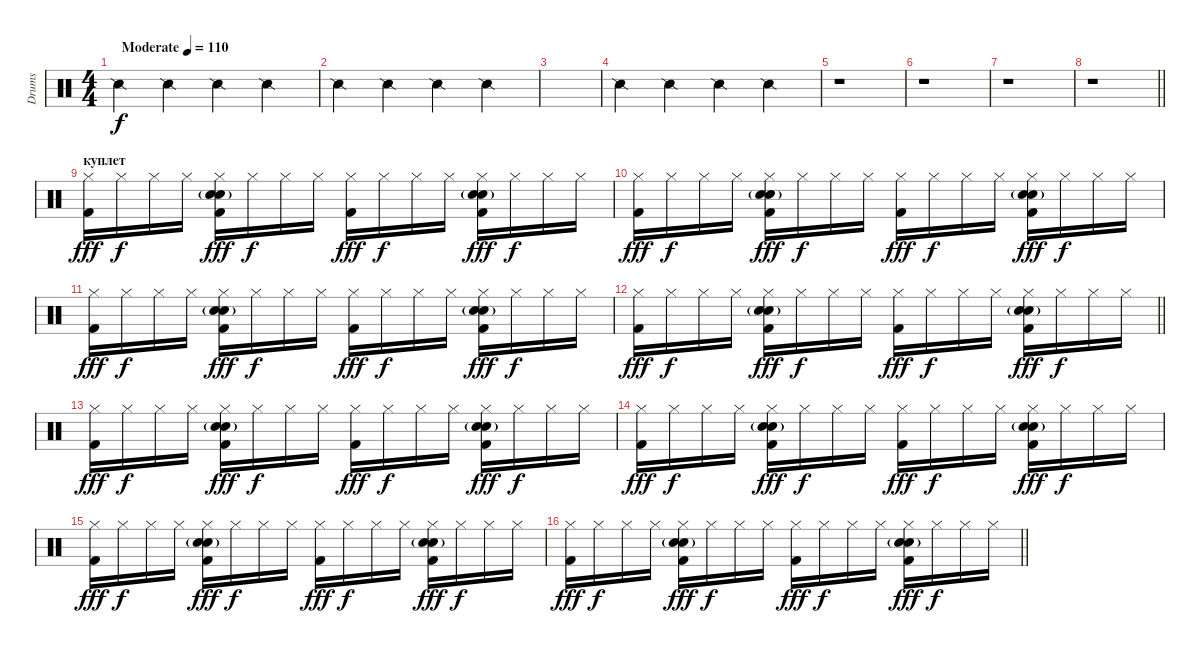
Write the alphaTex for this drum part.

\track ("Drums" "Drums") {instrument percussion}
\staff {score}
\articulation defaults
\ts (4 4)
\tempo (110 "Moderate")
\clef neutral
\ks c "Snare (side stick) 2".4{dy f} "Snare (side stick) 2".4 "Snare (side stick) 2".4 "Snare (side stick) 2".4
|
"Snare (side stick) 2".4 "Snare (side stick) 2".4 "Snare (side stick) 2".4 "Snare (side stick) 2".4 |
|
"Snare (side stick) 2".4 "Snare (side stick) 2".4 "Snare (side stick) 2".4 "Snare (side stick) 2".4 |
r.1 |
r.1 |
r.1 |
\barLineRight lightlight
r.1 |
\section ("" "куплет")
("Hi-Hat (closed)" "Kick (hit) 2").16{dy fff} "Hi-Hat (closed)".16{dy f} "Hi-Hat (closed)".16 "Hi-Hat (closed)".16 ("Hi-Hat (closed)" "Electric Snare (hit)"{g} "Hand Clap (hit)" "Kick (hit) 2").16{dy fff} "Hi-Hat (closed)".16{dy f} "Hi-Hat (closed)".16 "Hi-Hat (closed)".16 ("Hi-Hat (closed)" "Kick (hit) 2").16{dy fff} "Hi-Hat (closed)".16{dy f} "Hi-Hat (closed)".16 "Hi-Hat (closed)".16 ("Hi-Hat (closed)" "Electric Snare (hit)"{g} "Hand Clap (hit)" "Kick (hit) 2").16{dy fff} "Hi-Hat (closed)".16{dy f} "Hi-Hat (closed)".16 "Hi-Hat (closed)".16 |
("Hi-Hat (closed)" "Kick (hit) 2").16{dy fff} "Hi-Hat (closed)".16{dy f} "Hi-Hat (closed)".16 "Hi-Hat (closed)".16 ("Hi-Hat (closed)" "Electric Snare (hit)"{g} "Hand Clap (hit)" "Kick (hit) 2").16{dy fff} "Hi-Hat (closed)".16{dy f} "Hi-Hat (closed)".16 "Hi-Hat (closed)".16 ("Hi-Hat (closed)" "Kick (hit) 2").16{dy fff} "Hi-Hat (closed)".16{dy f} "Hi-Hat (closed)".16 "Hi-Hat (closed)".16 ("Hi-Hat (closed)" "Electric Snare (hit)"{g} "Hand Clap (hit)" "Kick (hit) 2").16{dy fff} "Hi-Hat (closed)".16{dy f} "Hi-Hat (closed)".16 "Hi-Hat (closed)".16 |
("Hi-Hat (closed)" "Kick (hit) 2").16{dy fff} "Hi-Hat (closed)".16{dy f} "Hi-Hat (closed)".16 "Hi-Hat (closed)".16 ("Hi-Hat (closed)" "Electric Snare (hit)"{g} "Hand Clap (hit)" "Kick (hit) 2").16{dy fff} "Hi-Hat (closed)".16{dy f} "Hi-Hat (closed)".16 "Hi-Hat (closed)".16 ("Hi-Hat (closed)" "Kick (hit) 2").16{dy fff} "Hi-Hat (closed)".16{dy f} "Hi-Hat (closed)".16 "Hi-Hat (closed)".16 ("Hi-Hat (closed)" "Electric Snare (hit)"{g} "Hand Clap (hit)" "Kick (hit) 2").16{dy fff} "Hi-Hat (closed)".16{dy f} "Hi-Hat (closed)".16 "Hi-Hat (closed)".16 |
\barLineRight lightlight
("Hi-Hat (closed)" "Kick (hit) 2").16{dy fff} "Hi-Hat (closed)".16{dy f} "Hi-Hat (closed)".16 "Hi-Hat (closed)".16 ("Hi-Hat (closed)" "Electric Snare (hit)"{g} "Hand Clap (hit)" "Kick (hit) 2").16{dy fff} "Hi-Hat (closed)".16{dy f} "Hi-Hat (closed)".16 "Hi-Hat (closed)".16 ("Hi-Hat (closed)" "Kick (hit) 2").16{dy fff} "Hi-Hat (closed)".16{dy f} "Hi-Hat (closed)".16 "Hi-Hat (closed)".16 ("Hi-Hat (closed)" "Electric Snare (hit)"{g} "Hand Clap (hit)" "Kick (hit) 2").16{dy fff} "Hi-Hat (closed)".16{dy f} "Hi-Hat (closed)".16 "Hi-Hat (closed)".16 |
("Hi-Hat (closed)" "Kick (hit) 2").16{dy fff} "Hi-Hat (closed)".16{dy f} "Hi-Hat (closed)".16 "Hi-Hat (closed)".16 ("Hi-Hat (closed)" "Electric Snare (hit)"{g} "Hand Clap (hit)" "Kick (hit) 2").16{dy fff} "Hi-Hat (closed)".16{dy f} "Hi-Hat (closed)".16 "Hi-Hat (closed)".16 ("Hi-Hat (closed)" "Kick (hit) 2").16{dy fff} "Hi-Hat (closed)".16{dy f} "Hi-Hat (closed)".16 "Hi-Hat (closed)".16 ("Hi-Hat (closed)" "Electric Snare (hit)"{g} "Hand Clap (hit)" "Kick (hit) 2").16{dy fff} "Hi-Hat (closed)".16{dy f} "Hi-Hat (closed)".16 "Hi-Hat (closed)".16 |
("Hi-Hat (closed)" "Kick (hit) 2").16{dy fff} "Hi-Hat (closed)".16{dy f} "Hi-Hat (closed)".16 "Hi-Hat (closed)".16 ("Hi-Hat (closed)" "Electric Snare (hit)"{g} "Hand Clap (hit)" "Kick (hit) 2").16{dy fff} "Hi-Hat (closed)".16{dy f} "Hi-Hat (closed)".16 "Hi-Hat (closed)".16 ("Hi-Hat (closed)" "Kick (hit) 2").16{dy fff} "Hi-Hat (closed)".16{dy f} "Hi-Hat (closed)".16 "Hi-Hat (closed)".16 ("Hi-Hat (closed)" "Electric Snare (hit)"{g} "Hand Clap (hit)" "Kick (hit) 2").16{dy fff} "Hi-Hat (closed)".16{dy f} "Hi-Hat (closed)".16 "Hi-Hat (closed)".16 |
("Hi-Hat (closed)" "Kick (hit) 2").16{dy fff} "Hi-Hat (closed)".16{dy f} "Hi-Hat (closed)".16 "Hi-Hat (closed)".16 ("Hi-Hat (closed)" "Electric Snare (hit)"{g} "Hand Clap (hit)" "Kick (hit) 2").16{dy fff} "Hi-Hat (closed)".16{dy f} "Hi-Hat (closed)".16 "Hi-Hat (closed)".16 ("Hi-Hat (closed)" "Kick (hit) 2").16{dy fff} "Hi-Hat (closed)".16{dy f} "Hi-Hat (closed)".16 "Hi-Hat (closed)".16 ("Hi-Hat (closed)" "Electric Snare (hit)"{g} "Hand Clap (hit)" "Kick (hit) 2").16{dy fff} "Hi-Hat (closed)".16{dy f} "Hi-Hat (closed)".16 "Hi-Hat (closed)".16 |
\barLineRight lightlight
("Hi-Hat (closed)" "Kick (hit) 2").16{dy fff} "Hi-Hat (closed)".16{dy f} "Hi-Hat (closed)".16 "Hi-Hat (closed)".16 ("Hi-Hat (closed)" "Electric Snare (hit)"{g} "Hand Clap (hit)" "Kick (hit) 2").16{dy fff} "Hi-Hat (closed)".16{dy f} "Hi-Hat (closed)".16 "Hi-Hat (closed)".16 ("Hi-Hat (closed)" "Kick (hit) 2").16{dy fff} "Hi-Hat (closed)".16{dy f} "Hi-Hat (closed)".16 "Hi-Hat (closed)".16 ("Hi-Hat (closed)" "Electric Snare (hit)"{g} "Hand Clap (hit)" "Kick (hit) 2").16{dy fff} "Hi-Hat (closed)".16{dy f} "Hi-Hat (closed)".16 "Hi-Hat (closed)".16
